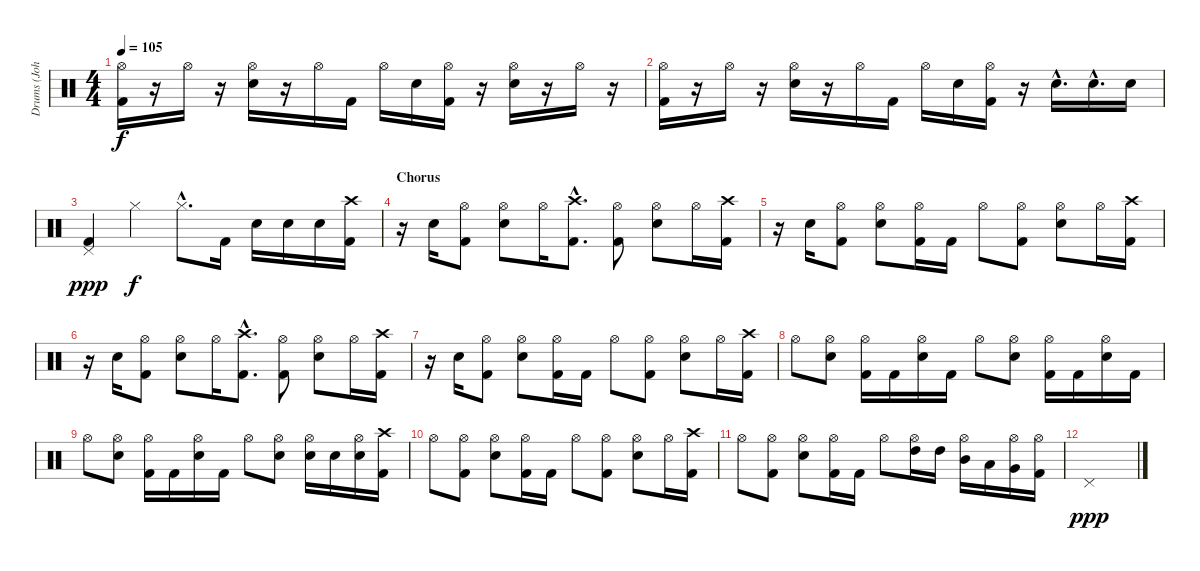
\track ("Drums (John Otto)" "Drums (Joh") {instrument percussion}
\staff {score}
\articulation defaults
\ts (4 4)
\tempo 105
\clef neutral
\ks c
("Hi-Hat (open)" "Kick (hit) 2").16{dy f} r.16 "Hi-Hat (open)".16 r.16 ("Hi-Hat (open)" "Electric Snare (hit)").16 r.16 "Hi-Hat (open)".16 "Kick (hit) 2".16 "Hi-Hat (open)".16 "Electric Snare (hit)".16 ("Hi-Hat (open)" "Kick (hit) 2").16 r.16 ("Hi-Hat (open)" "Electric Snare (hit)").16 r.16 "Hi-Hat (open)".16 r.16 |
("Hi-Hat (open)" "Kick (hit) 2").16 r.16 "Hi-Hat (open)".16 r.16 ("Hi-Hat (open)" "Electric Snare (hit)").16 r.16 "Hi-Hat (open)".16 "Kick (hit) 2".16 "Hi-Hat (open)".16 "Electric Snare (hit)".16 ("Hi-Hat (open)" "Kick (hit) 2").16 r.16 "Electric Snare (hit)"{hac}.16{d} "Electric Snare (hit)"{hac}.16{d} "Electric Snare (hit)".16 |
("Pedal Hi-Hat (hit)" "Kick (hit) 2").4{dy ppp} "Hi-Hat (closed)".4{dy f} "Hi-Hat (closed)"{hac}.8{d} "Kick (hit) 2".16 "Electric Snare (hit)".16 "Electric Snare (hit)".16 "Electric Snare (hit)".16 ("Crash high (hit)" "Kick (hit) 2").16 |
\section ("" "Chorus")
r.16 "Electric Snare (hit)".16 ("Hi-Hat (open)" "Kick (hit) 2").8 ("Hi-Hat (open)" "Electric Snare (hit)").8 "Hi-Hat (open)".16 ("Crash high (hit)"{hac} "Kick (hit) 2"{hac}).8{d} ("Hi-Hat (open)" "Kick (hit) 2").8 ("Hi-Hat (open)" "Electric Snare (hit)").8 "Hi-Hat (open)".16 ("Crash high (hit)" "Kick (hit) 2").16 |
r.16 "Electric Snare (hit)".16 ("Hi-Hat (open)" "Kick (hit) 2").8 ("Hi-Hat (open)" "Electric Snare (hit)").8 ("Hi-Hat (open)" "Kick (hit) 2").16 "Kick (hit) 2".16 "Hi-Hat (open)".8 ("Hi-Hat (open)" "Kick (hit) 2").8 ("Hi-Hat (open)" "Electric Snare (hit)").8 "Hi-Hat (open)".16 ("Crash high (hit)" "Kick (hit) 2").16 |
r.16 "Electric Snare (hit)".16 ("Hi-Hat (open)" "Kick (hit) 2").8 ("Hi-Hat (open)" "Electric Snare (hit)").8 "Hi-Hat (open)".16 ("Crash high (hit)"{hac} "Kick (hit) 2"{hac}).8{d} ("Hi-Hat (open)" "Kick (hit) 2").8 ("Hi-Hat (open)" "Electric Snare (hit)").8 "Hi-Hat (open)".16 ("Crash high (hit)" "Kick (hit) 2").16 |
r.16 "Electric Snare (hit)".16 ("Hi-Hat (open)" "Kick (hit) 2").8 ("Hi-Hat (open)" "Electric Snare (hit)").8 ("Hi-Hat (open)" "Kick (hit) 2").16 "Kick (hit) 2".16 "Hi-Hat (open)".8 ("Hi-Hat (open)" "Kick (hit) 2").8 ("Hi-Hat (open)" "Electric Snare (hit)").8 "Hi-Hat (open)".16 ("Crash high (hit)" "Kick (hit) 2").16 |
"Hi-Hat (open)".8 ("Hi-Hat (open)" "Electric Snare (hit)").8 ("Hi-Hat (open)" "Kick (hit) 2").16 "Kick (hit) 2".16 ("Hi-Hat (open)" "Electric Snare (hit)").16 "Kick (hit) 2".16 "Hi-Hat (open)".8 ("Hi-Hat (open)" "Electric Snare (hit)").8 ("Hi-Hat (open)" "Kick (hit) 2").16 "Kick (hit) 2".16 ("Hi-Hat (open)" "Electric Snare (hit)").16 "Kick (hit) 2".16 |
"Hi-Hat (open)".8 ("Hi-Hat (open)" "Electric Snare (hit)").8 ("Hi-Hat (open)" "Kick (hit) 2").16 "Kick (hit) 2".16 ("Hi-Hat (open)" "Electric Snare (hit)").16 "Kick (hit) 2".16 "Hi-Hat (open)".8 ("Hi-Hat (open)" "Electric Snare (hit)").8 ("Hi-Hat (open)" "Electric Snare (hit)").16 "Electric Snare (hit)".16 ("Hi-Hat (open)" "Electric Snare (hit)").16 ("Crash high (hit)" "Kick (hit) 2").16 |
"Hi-Hat (open)".8 ("Hi-Hat (open)" "Kick (hit) 2").8 ("Hi-Hat (open)" "Electric Snare (hit)").8 ("Hi-Hat (open)" "Kick (hit) 2").16 "Kick (hit) 2".16 "Hi-Hat (open)".8 ("Hi-Hat (open)" "Kick (hit) 2").8 ("Hi-Hat (open)" "Electric Snare (hit)").8 "Hi-Hat (open)".16 ("Crash high (hit)" "Kick (hit) 2").16 |
"Hi-Hat (open)".8 ("Hi-Hat (open)" "Kick (hit) 2").8 ("Hi-Hat (open)" "Electric Snare (hit)").8 ("Hi-Hat (open)" "Kick (hit) 2").16 "Kick (hit) 2".16 "Hi-Hat (open)".8 ("Hi-Hat (open)" "High Tom (hit)").16 "High Tom (hit)".16 ("Hi-Hat (open)" "Mid Tom (hit)").16 "Low Tom (hit)".16 ("Hi-Hat (open)" "Very Low Tom (hit)").16 ("Hi-Hat (open)" "Kick (hit) 2").16 |
"Pedal Hi-Hat (hit)".1{dy ppp}
